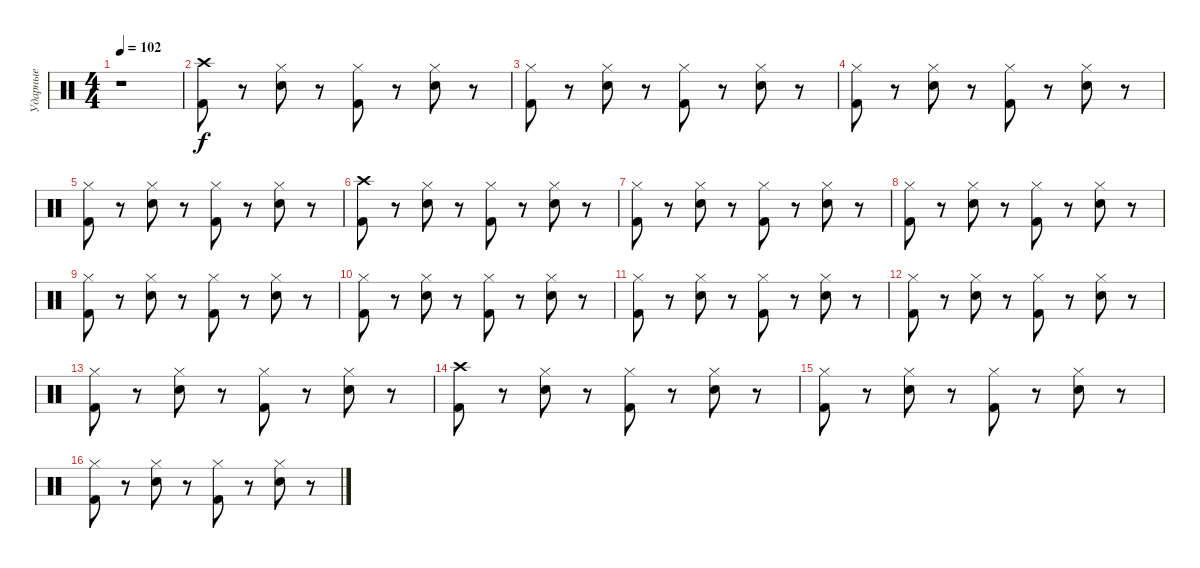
\track ("Ударные" "Ударные") {instrument percussion}
\staff {score}
\articulation defaults
\ts (4 4)
\tempo 102
\clef neutral
\ks c
r.1{dy f} |
("Crash high (hit)" "Kick (hit) 2").8 r.8 ("Hi-Hat (closed)" "Snare (hit) 2").8 r.8 ("Hi-Hat (closed)" "Kick (hit) 2").8 r.8 ("Hi-Hat (closed)" "Snare (hit) 2").8 r.8 |
("Hi-Hat (closed)" "Kick (hit) 2").8 r.8 ("Hi-Hat (closed)" "Snare (hit) 2").8 r.8 ("Hi-Hat (closed)" "Kick (hit) 2").8 r.8 ("Hi-Hat (closed)" "Snare (hit) 2").8 r.8 |
("Hi-Hat (closed)" "Kick (hit) 2").8 r.8 ("Hi-Hat (closed)" "Snare (hit) 2").8 r.8 ("Hi-Hat (closed)" "Kick (hit) 2").8 r.8 ("Hi-Hat (closed)" "Snare (hit) 2").8 r.8 |
("Hi-Hat (closed)" "Kick (hit) 2").8 r.8 ("Hi-Hat (closed)" "Snare (hit) 2").8 r.8 ("Hi-Hat (closed)" "Kick (hit) 2").8 r.8 ("Hi-Hat (closed)" "Snare (hit) 2").8 r.8 |
("Crash high (hit)" "Kick (hit) 2").8 r.8 ("Hi-Hat (closed)" "Snare (hit) 2").8 r.8 ("Hi-Hat (closed)" "Kick (hit) 2").8 r.8 ("Hi-Hat (closed)" "Snare (hit) 2").8 r.8 |
("Hi-Hat (closed)" "Kick (hit) 2").8 r.8 ("Hi-Hat (closed)" "Snare (hit) 2").8 r.8 ("Hi-Hat (closed)" "Kick (hit) 2").8 r.8 ("Hi-Hat (closed)" "Snare (hit) 2").8 r.8 |
("Hi-Hat (closed)" "Kick (hit) 2").8 r.8 ("Hi-Hat (closed)" "Snare (hit) 2").8 r.8 ("Hi-Hat (closed)" "Kick (hit) 2").8 r.8 ("Hi-Hat (closed)" "Snare (hit) 2").8 r.8 |
("Hi-Hat (closed)" "Kick (hit) 2").8 r.8 ("Hi-Hat (closed)" "Snare (hit) 2").8 r.8 ("Hi-Hat (closed)" "Kick (hit) 2").8 r.8 ("Hi-Hat (closed)" "Snare (hit) 2").8 r.8 |
("Hi-Hat (closed)" "Kick (hit) 2").8 r.8 ("Hi-Hat (closed)" "Snare (hit) 2").8 r.8 ("Hi-Hat (closed)" "Kick (hit) 2").8 r.8 ("Hi-Hat (closed)" "Snare (hit) 2").8 r.8 |
("Hi-Hat (closed)" "Kick (hit) 2").8 r.8 ("Hi-Hat (closed)" "Snare (hit) 2").8 r.8 ("Hi-Hat (closed)" "Kick (hit) 2").8 r.8 ("Hi-Hat (closed)" "Snare (hit) 2").8 r.8 |
("Hi-Hat (closed)" "Kick (hit) 2").8 r.8 ("Hi-Hat (closed)" "Snare (hit) 2").8 r.8 ("Hi-Hat (closed)" "Kick (hit) 2").8 r.8 ("Hi-Hat (closed)" "Snare (hit) 2").8 r.8 |
("Hi-Hat (closed)" "Kick (hit) 2").8 r.8 ("Hi-Hat (closed)" "Snare (hit) 2").8 r.8 ("Hi-Hat (closed)" "Kick (hit) 2").8 r.8 ("Hi-Hat (closed)" "Snare (hit) 2").8 r.8 |
("Crash high (hit)" "Kick (hit) 2").8 r.8 ("Hi-Hat (closed)" "Snare (hit) 2").8 r.8 ("Hi-Hat (closed)" "Kick (hit) 2").8 r.8 ("Hi-Hat (closed)" "Snare (hit) 2").8 r.8 |
("Hi-Hat (closed)" "Kick (hit) 2").8 r.8 ("Hi-Hat (closed)" "Snare (hit) 2").8 r.8 ("Hi-Hat (closed)" "Kick (hit) 2").8 r.8 ("Hi-Hat (closed)" "Snare (hit) 2").8 r.8 |
("Hi-Hat (closed)" "Kick (hit) 2").8 r.8 ("Hi-Hat (closed)" "Snare (hit) 2").8 r.8 ("Hi-Hat (closed)" "Kick (hit) 2").8 r.8 ("Hi-Hat (closed)" "Snare (hit) 2").8 r.8
